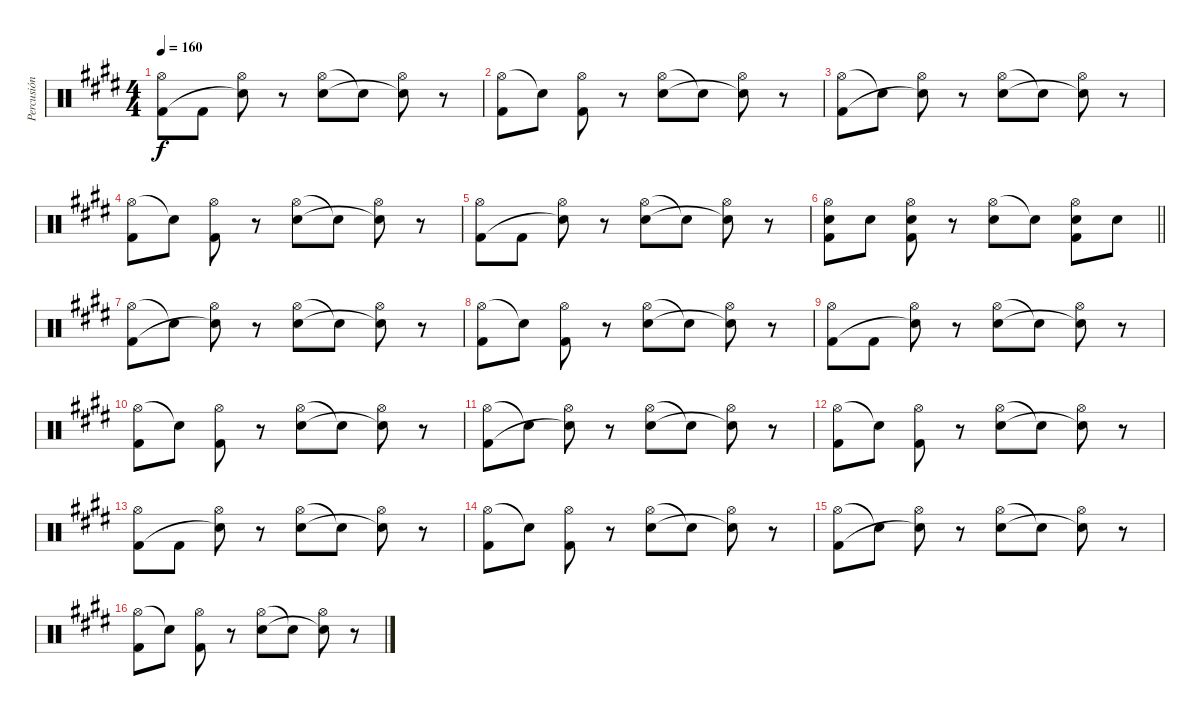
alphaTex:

\track ("Percusión" "Percusión") {instrument percussion}
\staff {score}
\articulation defaults
\ts (4 4)
\tempo 160
\clef neutral
\ks e
("Hi-Hat (open)" "Kick (hit) 2").8{dy f} "Kick (hit) 2".8 ("Hi-Hat (open)" "Snare (hit) 2"{t}).8 r.8 ("Hi-Hat (open)" "Electric Snare (hit)").8 "Snare (hit) 2"{t}.8 ("Hi-Hat (open)" "Snare (hit) 2"{t}).8 r.8 |
("Hi-Hat (open)" "Kick (hit) 2").8 "Snare (hit) 2"{t}.8 ("Hi-Hat (open)" "Kick (hit) 2").8 r.8 ("Hi-Hat (open)" "Electric Snare (hit)").8 "Snare (hit) 2"{t}.8 ("Hi-Hat (open)" "Snare (hit) 2"{t}).8 r.8 |
("Hi-Hat (open)" "Kick (hit) 2").8 "Snare (hit) 2"{t}.8 ("Hi-Hat (open)" "Snare (hit) 2"{t}).8 r.8 ("Hi-Hat (open)" "Electric Snare (hit)").8 "Snare (hit) 2"{t}.8 ("Hi-Hat (open)" "Snare (hit) 2"{t}).8 r.8 |
("Hi-Hat (open)" "Kick (hit) 2").8 "Snare (hit) 2"{t}.8 ("Hi-Hat (open)" "Kick (hit) 2").8 r.8 ("Hi-Hat (open)" "Electric Snare (hit)").8 "Snare (hit) 2"{t}.8 ("Hi-Hat (open)" "Snare (hit) 2"{t}).8 r.8 |
("Hi-Hat (open)" "Kick (hit) 2").8 "Kick (hit) 2".8 ("Hi-Hat (open)" "Snare (hit) 2"{t}).8 r.8 ("Hi-Hat (open)" "Electric Snare (hit)").8 "Snare (hit) 2"{t}.8 ("Hi-Hat (open)" "Snare (hit) 2"{t}).8 r.8 |
\barLineRight lightlight
("Hi-Hat (open)" "Kick (hit) 2" "Electric Snare (hit)").8 "Electric Snare (hit)".8 ("Hi-Hat (open)" "Kick (hit) 2" "Electric Snare (hit)").8 r.8 ("Hi-Hat (open)" "Electric Snare (hit)").8 "Snare (hit) 2"{t}.8 ("Hi-Hat (open)" "Kick (hit) 2" "Electric Snare (hit)").8 "Electric Snare (hit)".8 |
\section ("" "")
("Hi-Hat (open)" "Kick (hit) 2").8 "Snare (hit) 2"{t}.8 ("Hi-Hat (open)" "Snare (hit) 2"{t}).8 r.8 ("Hi-Hat (open)" "Electric Snare (hit)").8 "Snare (hit) 2"{t}.8 ("Hi-Hat (open)" "Snare (hit) 2"{t}).8 r.8 |
("Hi-Hat (open)" "Kick (hit) 2").8 "Snare (hit) 2"{t}.8 ("Hi-Hat (open)" "Kick (hit) 2").8 r.8 ("Hi-Hat (open)" "Electric Snare (hit)").8 "Snare (hit) 2"{t}.8 ("Hi-Hat (open)" "Snare (hit) 2"{t}).8 r.8 |
("Hi-Hat (open)" "Kick (hit) 2").8 "Kick (hit) 2".8 ("Hi-Hat (open)" "Snare (hit) 2"{t}).8 r.8 ("Hi-Hat (open)" "Electric Snare (hit)").8 "Snare (hit) 2"{t}.8 ("Hi-Hat (open)" "Snare (hit) 2"{t}).8 r.8 |
("Hi-Hat (open)" "Kick (hit) 2").8 "Snare (hit) 2"{t}.8 ("Hi-Hat (open)" "Kick (hit) 2").8 r.8 ("Hi-Hat (open)" "Electric Snare (hit)").8 "Snare (hit) 2"{t}.8 ("Hi-Hat (open)" "Snare (hit) 2"{t}).8 r.8 |
("Hi-Hat (open)" "Kick (hit) 2").8 "Snare (hit) 2"{t}.8 ("Hi-Hat (open)" "Snare (hit) 2"{t}).8 r.8 ("Hi-Hat (open)" "Electric Snare (hit)").8 "Snare (hit) 2"{t}.8 ("Hi-Hat (open)" "Snare (hit) 2"{t}).8 r.8 |
("Hi-Hat (open)" "Kick (hit) 2").8 "Snare (hit) 2"{t}.8 ("Hi-Hat (open)" "Kick (hit) 2").8 r.8 ("Hi-Hat (open)" "Electric Snare (hit)").8 "Snare (hit) 2"{t}.8 ("Hi-Hat (open)" "Snare (hit) 2"{t}).8 r.8 |
("Hi-Hat (open)" "Kick (hit) 2").8 "Kick (hit) 2".8 ("Hi-Hat (open)" "Snare (hit) 2"{t}).8 r.8 ("Hi-Hat (open)" "Electric Snare (hit)").8 "Snare (hit) 2"{t}.8 ("Hi-Hat (open)" "Snare (hit) 2"{t}).8 r.8 |
("Hi-Hat (open)" "Kick (hit) 2").8 "Snare (hit) 2"{t}.8 ("Hi-Hat (open)" "Kick (hit) 2").8 r.8 ("Hi-Hat (open)" "Electric Snare (hit)").8 "Snare (hit) 2"{t}.8 ("Hi-Hat (open)" "Snare (hit) 2"{t}).8 r.8 |
("Hi-Hat (open)" "Kick (hit) 2").8 "Snare (hit) 2"{t}.8 ("Hi-Hat (open)" "Snare (hit) 2"{t}).8 r.8 ("Hi-Hat (open)" "Electric Snare (hit)").8 "Snare (hit) 2"{t}.8 ("Hi-Hat (open)" "Snare (hit) 2"{t}).8 r.8 |
("Hi-Hat (open)" "Kick (hit) 2").8 "Snare (hit) 2"{t}.8 ("Hi-Hat (open)" "Kick (hit) 2").8 r.8 ("Hi-Hat (open)" "Electric Snare (hit)").8 "Snare (hit) 2"{t}.8 ("Hi-Hat (open)" "Snare (hit) 2"{t}).8 r.8
